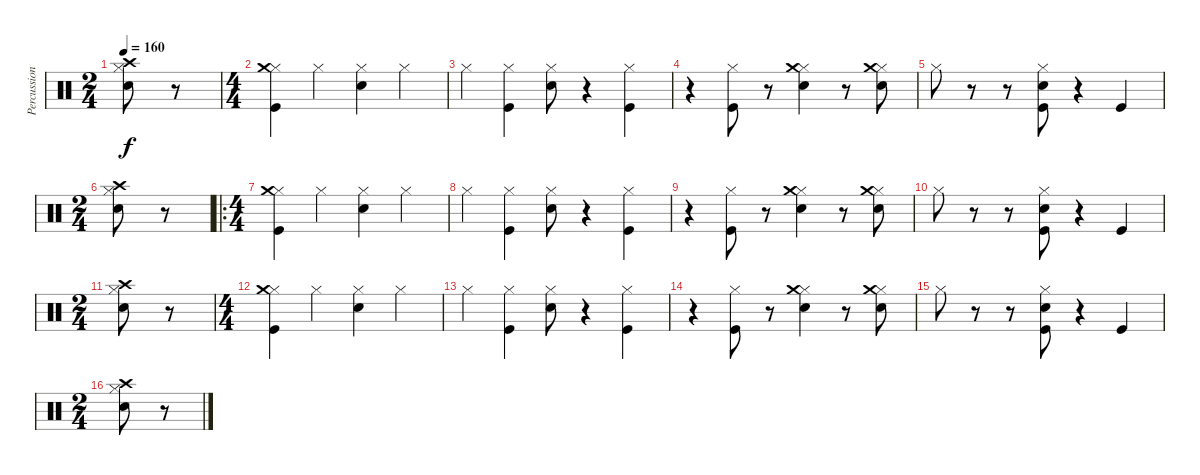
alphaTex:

\track ("Percussion" "Percussion") {instrument percussion}
\staff {score}
\articulation defaults
\ts (2 4)
\tempo 160
\clef neutral
\ks c
("Hi-Hat (closed)" "Crash high (hit)" "Snare (hit) 2").8{dy f} r.8 |
\ts (4 4)
("Hi-Hat (closed)" "Crash medium (hit)" "Kick (hit)").4 "Hi-Hat (closed)".4 ("Hi-Hat (closed)" "Snare (hit) 2").4 "Hi-Hat (closed)".4 |
"Hi-Hat (closed)".4 ("Hi-Hat (closed)" "Kick (hit)").4 ("Hi-Hat (closed)" "Snare (hit) 2").8 r.4 ("Hi-Hat (closed)" "Kick (hit)").4 |
r.4 ("Hi-Hat (closed)" "Kick (hit)").8 r.8 ("Hi-Hat (closed)" "Crash medium (hit)" "Snare (hit) 2").4 r.8 ("Hi-Hat (closed)" "Crash medium (hit)" "Snare (hit) 2").8 |
"Hi-Hat (closed)".8 r.8 r.8 ("Hi-Hat (closed)" "Snare (hit) 2" "Kick (hit)").8 r.4 "Kick (hit)".4 |
\ts (2 4)
("Hi-Hat (closed)" "Crash high (hit)" "Snare (hit) 2").8 r.8 |
\ro
\ts (4 4)
("Hi-Hat (closed)" "Crash medium (hit)" "Kick (hit)").4 "Hi-Hat (closed)".4 ("Hi-Hat (closed)" "Snare (hit) 2").4 "Hi-Hat (closed)".4 |
"Hi-Hat (closed)".4 ("Hi-Hat (closed)" "Kick (hit)").4 ("Hi-Hat (closed)" "Snare (hit) 2").8 r.4 ("Hi-Hat (closed)" "Kick (hit)").4 |
r.4 ("Hi-Hat (closed)" "Kick (hit)").8 r.8 ("Hi-Hat (closed)" "Crash medium (hit)" "Snare (hit) 2").4 r.8 ("Hi-Hat (closed)" "Crash medium (hit)" "Snare (hit) 2").8 |
"Hi-Hat (closed)".8 r.8 r.8 ("Hi-Hat (closed)" "Snare (hit) 2" "Kick (hit)").8 r.4 "Kick (hit)".4 |
\ts (2 4)
("Hi-Hat (closed)" "Crash high (hit)" "Snare (hit) 2").8 r.8 |
\ts (4 4)
("Hi-Hat (closed)" "Crash medium (hit)" "Kick (hit)").4 "Hi-Hat (closed)".4 ("Hi-Hat (closed)" "Snare (hit) 2").4 "Hi-Hat (closed)".4 |
"Hi-Hat (closed)".4 ("Hi-Hat (closed)" "Kick (hit)").4 ("Hi-Hat (closed)" "Snare (hit) 2").8 r.4 ("Hi-Hat (closed)" "Kick (hit)").4 |
r.4 ("Hi-Hat (closed)" "Kick (hit)").8 r.8 ("Hi-Hat (closed)" "Crash medium (hit)" "Snare (hit) 2").4 r.8 ("Hi-Hat (closed)" "Crash medium (hit)" "Snare (hit) 2").8 |
"Hi-Hat (closed)".8 r.8 r.8 ("Hi-Hat (closed)" "Snare (hit) 2" "Kick (hit)").8 r.4 "Kick (hit)".4 |
\ts (2 4)
("Hi-Hat (closed)" "Crash high (hit)" "Snare (hit) 2").8 r.8
